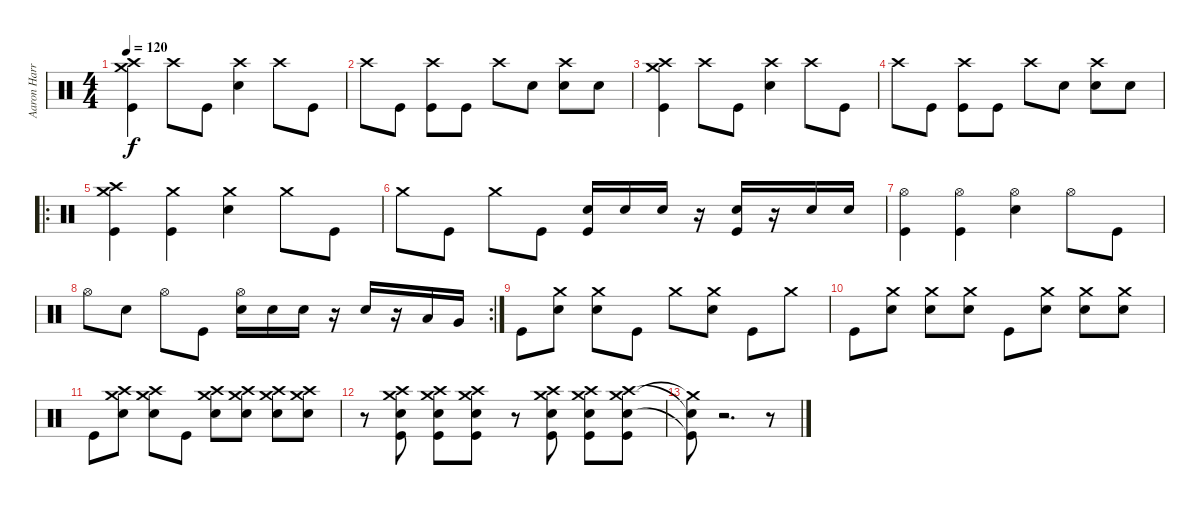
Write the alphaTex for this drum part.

\track ("Aaron Harris" "Aaron Harr") {instrument percussion}
\staff {score}
\articulation defaults
\ts (4 4)
\tempo 120
\clef neutral
\ks c
("Crash high (hit)" "Crash medium (hit)" "Kick (hit)").4{dy f} "Crash high (hit)".8 "Kick (hit)".8 ("Crash high (hit)" "Snare (hit) 2").4 "Crash high (hit)".8 "Kick (hit)".8 |
"Crash high (hit)".8 "Kick (hit)".8 ("Crash high (hit)" "Kick (hit)").8 "Kick (hit)".8 "Crash high (hit)".8 "Snare (hit) 2".8 ("Crash high (hit)" "Snare (hit) 2").8 "Snare (hit) 2".8 |
("Crash high (hit)" "Crash medium (hit)" "Kick (hit)").4 "Crash high (hit)".8 "Kick (hit)".8 ("Crash high (hit)" "Snare (hit) 2").4 "Crash high (hit)".8 "Kick (hit)".8 |
"Crash high (hit)".8 "Kick (hit)".8 ("Crash high (hit)" "Kick (hit)").8 "Kick (hit)".8 "Crash high (hit)".8 "Snare (hit) 2".8 ("Crash high (hit)" "Snare (hit) 2").8 "Snare (hit) 2".8 |
\ro
("Crash medium (hit)" "Crash high (hit)" "Kick (hit)").4 ("Crash medium (hit)" "Kick (hit)").4 ("Crash medium (hit)" "Snare (hit) 2").4 "Crash medium (hit)".8 "Kick (hit)".8 |
"Crash medium (hit)".8 "Kick (hit)".8 "Crash medium (hit)".8 "Kick (hit)".8 ("Snare (hit) 2" "Kick (hit)").16 "Snare (hit) 2".16 "Snare (hit) 2".16 r.16 ("Snare (hit) 2" "Kick (hit)").16 r.16 "Snare (hit) 2".16 "Snare (hit) 2".16 |
("Hi-Hat (open)" "Kick (hit)").4 ("Hi-Hat (open)" "Kick (hit)").4 ("Hi-Hat (open)" "Snare (hit) 2").4 "Hi-Hat (open)".8 "Kick (hit)".8 |
\rc 2 "Hi-Hat (open)".8 "Snare (hit) 2".8 "Hi-Hat (open)".8 "Kick (hit)".8
("Hi-Hat (open)" "Snare (hit) 2").16 "Snare (hit) 2".16 "Snare (hit) 2".16 r.16 "Snare (hit) 2".16 r.16 "Low Tom (hit)".16 "Very Low Tom (hit)".16 |
"Kick (hit)".8 ("Crash medium (hit)" "Snare (hit) 2").8 ("Crash medium (hit)" "Snare (hit) 2").8 "Kick (hit)".8 "Crash medium (hit)".8 ("Crash medium (hit)" "Snare (hit) 2").8 "Kick (hit)".8 "Crash medium (hit)".8 |
"Kick (hit)".8 ("Crash medium (hit)" "Snare (hit) 2").8 ("Crash medium (hit)" "Snare (hit) 2").8 ("Crash medium (hit)" "Snare (hit) 2").8 "Kick (hit)".8 ("Crash medium (hit)" "Snare (hit) 2").8 ("Crash medium (hit)" "Snare (hit) 2").8 ("Crash medium (hit)" "Snare (hit) 2").8 |
"Kick (hit)".8 ("Crash medium (hit)" "Crash high (hit)" "Snare (hit) 2").8 ("Crash medium (hit)" "Crash high (hit)" "Snare (hit) 2").8 "Kick (hit)".8 ("Crash medium (hit)" "Crash high (hit)" "Snare (hit) 2").8 ("Crash medium (hit)" "Crash high (hit)" "Snare (hit) 2").8 ("Crash medium (hit)" "Crash high (hit)" "Snare (hit) 2").8 ("Crash medium (hit)" "Crash high (hit)" "Snare (hit) 2").8 |
r.8 ("Crash medium (hit)" "Crash high (hit)" "Snare (hit) 2" "Kick (hit)").8 ("Crash medium (hit)" "Crash high (hit)" "Snare (hit) 2" "Kick (hit)").8 ("Crash medium (hit)" "Crash high (hit)" "Snare (hit) 2" "Kick (hit)").8 r.8 ("Crash medium (hit)" "Crash high (hit)" "Snare (hit) 2" "Kick (hit)").8 ("Crash medium (hit)" "Crash high (hit)" "Snare (hit) 2" "Kick (hit)").8 ("Crash medium (hit)" "Crash high (hit)" "Snare (hit) 2" "Kick (hit)").8 |
("Crash medium (hit)"{t} "Snare (hit) 2"{t} "Kick (hit)"{t}).8 r.2{d} r.8
